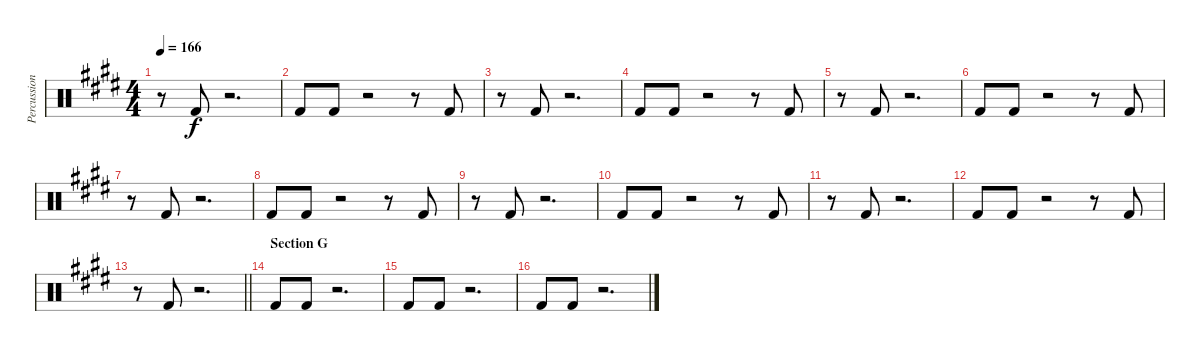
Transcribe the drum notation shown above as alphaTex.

\track ("Percussion - Other" "Percussion") {instrument percussion}
\staff {score}
\articulation defaults
\ts (4 4)
\tempo 166
\clef neutral
\ks e
r.8{dy f} "Kick (hit) 2".8 r.2{d} |
"Kick (hit) 2".8 "Kick (hit) 2".8 r.2 r.8 "Kick (hit) 2".8 |
r.8 "Kick (hit) 2".8 r.2{d} |
"Kick (hit) 2".8 "Kick (hit) 2".8 r.2 r.8 "Kick (hit) 2".8 |
r.8 "Kick (hit) 2".8 r.2{d} |
"Kick (hit) 2".8 "Kick (hit) 2".8 r.2 r.8 "Kick (hit) 2".8 |
r.8 "Kick (hit) 2".8 r.2{d} |
"Kick (hit) 2".8 "Kick (hit) 2".8 r.2 r.8 "Kick (hit) 2".8 |
r.8 "Kick (hit) 2".8 r.2{d} |
"Kick (hit) 2".8 "Kick (hit) 2".8 r.2 r.8 "Kick (hit) 2".8 |
r.8 "Kick (hit) 2".8 r.2{d} |
"Kick (hit) 2".8 "Kick (hit) 2".8 r.2 r.8 "Kick (hit) 2".8 |
\barLineRight lightlight
r.8 "Kick (hit) 2".8 r.2{d} |
\section ("" "Section G")
"Kick (hit) 2".8 "Kick (hit) 2".8 r.2{d} |
"Kick (hit) 2".8 "Kick (hit) 2".8 r.2{d} |
"Kick (hit) 2".8 "Kick (hit) 2".8 r.2{d}
